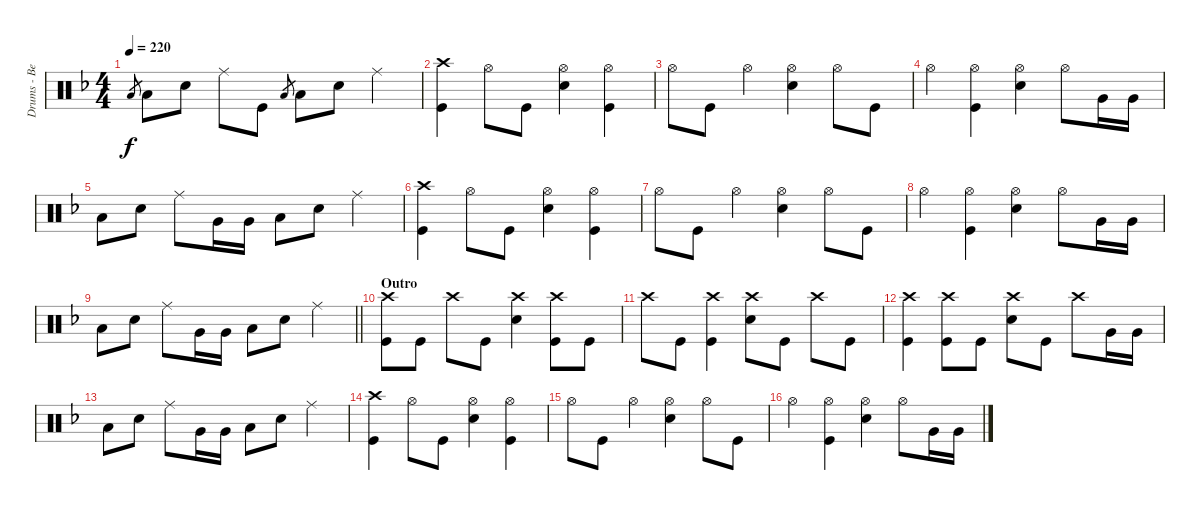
\track ("Drums - Ben Johnston" "Drums - Be") {instrument percussion}
\staff {score}
\articulation defaults
\ts (4 4)
\tempo 220
\clef neutral
\ks dminor "Low Floor Tom (hit)".8{gr dy f} "Low Floor Tom (hit)".8 "Snare (hit) 2".8 "Ride (middle)".8 "Kick (hit)".8 "Low Floor Tom (hit)".8{gr} "Low Floor Tom (hit)".8 "Snare (hit) 2".8 "Ride (middle)".4
|
("Crash high (hit)" "Kick (hit)").4 "Hi-Hat (open)".8 "Kick (hit)".8 ("Hi-Hat (open)" "Snare (hit) 2").4 ("Hi-Hat (open)" "Kick (hit)").4 |
"Hi-Hat (open)".8 "Kick (hit)".8 "Hi-Hat (open)".4 ("Hi-Hat (open)" "Snare (hit) 2").4 "Hi-Hat (open)".8 "Kick (hit)".8 |
"Hi-Hat (open)".4 ("Hi-Hat (open)" "Kick (hit)").4 ("Hi-Hat (open)" "Snare (hit) 2").4 "Hi-Hat (open)".8 "Very Low Tom (hit)".16 "Very Low Tom (hit)".16 |
"Low Floor Tom (hit)".8 "Snare (hit) 2".8 "Ride (middle)".8 "Very Low Tom (hit)".16 "Very Low Tom (hit)".16 "Low Floor Tom (hit)".8 "Snare (hit) 2".8 "Ride (middle)".4 |
("Crash high (hit)" "Kick (hit)").4 "Hi-Hat (open)".8 "Kick (hit)".8 ("Hi-Hat (open)" "Snare (hit) 2").4 ("Hi-Hat (open)" "Kick (hit)").4 |
"Hi-Hat (open)".8 "Kick (hit)".8 "Hi-Hat (open)".4 ("Hi-Hat (open)" "Snare (hit) 2").4 "Hi-Hat (open)".8 "Kick (hit)".8 |
"Hi-Hat (open)".4 ("Hi-Hat (open)" "Kick (hit)").4 ("Hi-Hat (open)" "Snare (hit) 2").4 "Hi-Hat (open)".8 "Very Low Tom (hit)".16 "Very Low Tom (hit)".16 |
\barLineRight lightlight "Low Floor Tom (hit)".8 "Snare (hit) 2".8 "Ride (middle)".8 "Very Low Tom (hit)".16 "Very Low Tom (hit)".16 "Low Floor Tom (hit)".8 "Snare (hit) 2".8 "Ride (middle)".4
|
\section ("" "Outro")
("Crash high (hit)" "Kick (hit)").8 "Kick (hit)".8 "Crash high (hit)".8 "Kick (hit)".8 ("Crash high (hit)" "Snare (hit) 2").4 ("Crash high (hit)" "Kick (hit)").8 "Kick (hit)".8 |
"Crash high (hit)".8 "Kick (hit)".8 ("Crash high (hit)" "Kick (hit)").4 ("Crash high (hit)" "Snare (hit) 2").8 "Kick (hit)".8 "Crash high (hit)".8 "Kick (hit)".8 |
("Crash high (hit)" "Kick (hit)").4 ("Crash high (hit)" "Kick (hit)").8 "Kick (hit)".8 ("Crash high (hit)" "Snare (hit) 2").8 "Kick (hit)".8 "Crash high (hit)".8 "Very Low Tom (hit)".16 "Very Low Tom (hit)".16 |
"Low Floor Tom (hit)".8 "Snare (hit) 2".8 "Ride (middle)".8 "Very Low Tom (hit)".16 "Very Low Tom (hit)".16 "Low Floor Tom (hit)".8 "Snare (hit) 2".8 "Ride (middle)".4 |
("Crash high (hit)" "Kick (hit)").4 "Hi-Hat (open)".8 "Kick (hit)".8 ("Hi-Hat (open)" "Snare (hit) 2").4 ("Hi-Hat (open)" "Kick (hit)").4 |
"Hi-Hat (open)".8 "Kick (hit)".8 "Hi-Hat (open)".4 ("Hi-Hat (open)" "Snare (hit) 2").4 "Hi-Hat (open)".8 "Kick (hit)".8 |
"Hi-Hat (open)".4 ("Hi-Hat (open)" "Kick (hit)").4 ("Hi-Hat (open)" "Snare (hit) 2").4 "Hi-Hat (open)".8 "Very Low Tom (hit)".16 "Very Low Tom (hit)".16
